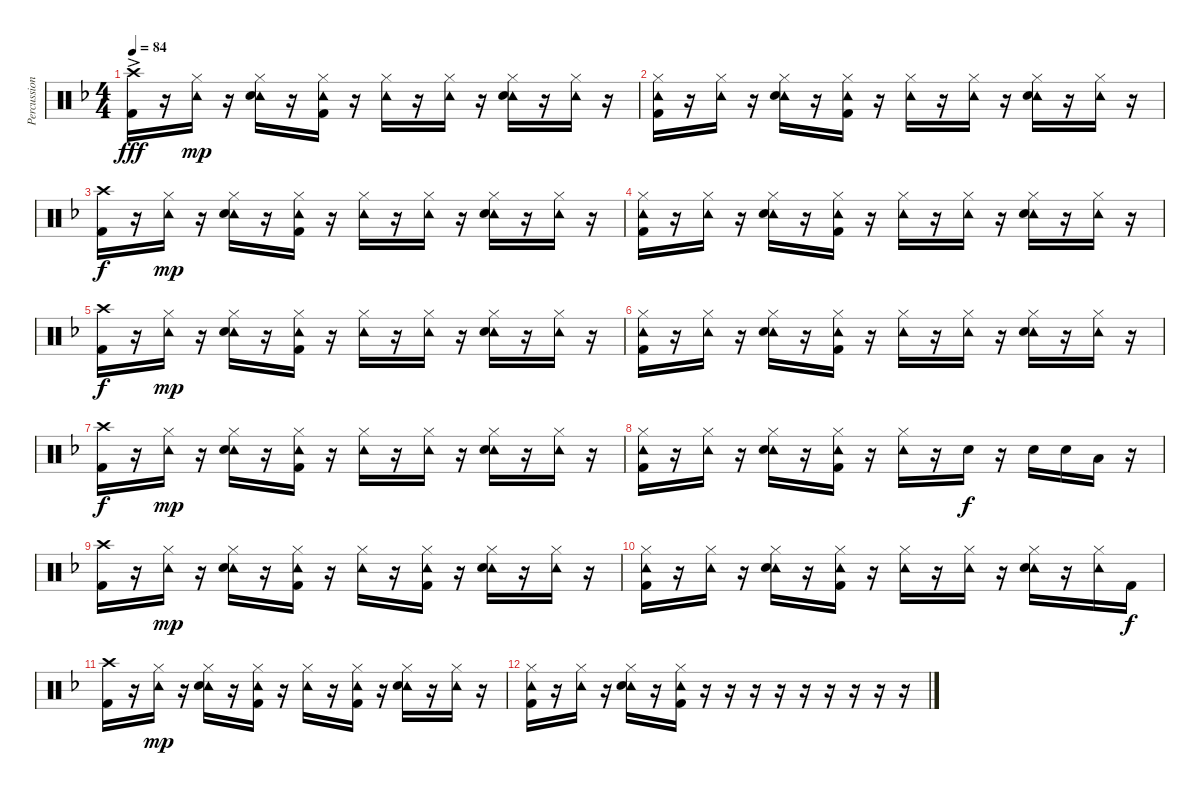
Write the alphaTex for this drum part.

\track ("Percussion" "Percussion") {instrument percussion}
\staff {score}
\articulation defaults
\ts (4 4)
\tempo 84
\clef neutral
\ks f
("Crash high (hit)"{ac} "Kick (hit) 2").16{dy fff} r.16 ("Hi-Hat (closed)" "Tambourine (hit)").16{dy mp} r.16 ("Hi-Hat (closed)" "Tambourine (hit)" "Snare (hit) 2").16 r.16 ("Hi-Hat (closed)" "Tambourine (hit)" "Kick (hit) 2").16 r.16 ("Hi-Hat (closed)" "Tambourine (hit)").16 r.16 ("Hi-Hat (closed)" "Tambourine (hit)").16 r.16 ("Hi-Hat (closed)" "Tambourine (hit)" "Snare (hit) 2").16 r.16 ("Hi-Hat (closed)" "Tambourine (hit)").16 r.16 |
("Hi-Hat (closed)" "Tambourine (hit)" "Kick (hit) 2").16 r.16 ("Hi-Hat (closed)" "Tambourine (hit)").16 r.16 ("Hi-Hat (closed)" "Tambourine (hit)" "Snare (hit) 2").16 r.16 ("Hi-Hat (closed)" "Tambourine (hit)" "Kick (hit) 2").16 r.16 ("Hi-Hat (closed)" "Tambourine (hit)").16 r.16 ("Hi-Hat (closed)" "Tambourine (hit)").16 r.16 ("Hi-Hat (closed)" "Tambourine (hit)" "Snare (hit) 2").16 r.16 ("Hi-Hat (closed)" "Tambourine (hit)").16 r.16 |
("Crash high (hit)" "Kick (hit) 2").16{dy f} r.16 ("Hi-Hat (closed)" "Tambourine (hit)").16{dy mp} r.16 ("Hi-Hat (closed)" "Tambourine (hit)" "Snare (hit) 2").16 r.16 ("Hi-Hat (closed)" "Tambourine (hit)" "Kick (hit) 2").16 r.16 ("Hi-Hat (closed)" "Tambourine (hit)").16 r.16 ("Hi-Hat (closed)" "Tambourine (hit)").16 r.16 ("Hi-Hat (closed)" "Tambourine (hit)" "Snare (hit) 2").16 r.16 ("Hi-Hat (closed)" "Tambourine (hit)").16 r.16 |
("Hi-Hat (closed)" "Tambourine (hit)" "Kick (hit) 2").16 r.16 ("Hi-Hat (closed)" "Tambourine (hit)").16 r.16 ("Hi-Hat (closed)" "Tambourine (hit)" "Snare (hit) 2").16 r.16 ("Hi-Hat (closed)" "Tambourine (hit)" "Kick (hit) 2").16 r.16 ("Hi-Hat (closed)" "Tambourine (hit)").16 r.16 ("Hi-Hat (closed)" "Tambourine (hit)").16 r.16 ("Hi-Hat (closed)" "Tambourine (hit)" "Snare (hit) 2").16 r.16 ("Hi-Hat (closed)" "Tambourine (hit)").16 r.16 |
("Crash high (hit)" "Kick (hit) 2").16{dy f} r.16 ("Hi-Hat (closed)" "Tambourine (hit)").16{dy mp} r.16 ("Hi-Hat (closed)" "Tambourine (hit)" "Snare (hit) 2").16 r.16 ("Hi-Hat (closed)" "Tambourine (hit)" "Kick (hit) 2").16 r.16 ("Hi-Hat (closed)" "Tambourine (hit)").16 r.16 ("Hi-Hat (closed)" "Tambourine (hit)").16 r.16 ("Hi-Hat (closed)" "Tambourine (hit)" "Snare (hit) 2").16 r.16 ("Hi-Hat (closed)" "Tambourine (hit)").16 r.16 |
("Hi-Hat (closed)" "Tambourine (hit)" "Kick (hit) 2").16 r.16 ("Hi-Hat (closed)" "Tambourine (hit)").16 r.16 ("Hi-Hat (closed)" "Tambourine (hit)" "Snare (hit) 2").16 r.16 ("Hi-Hat (closed)" "Tambourine (hit)" "Kick (hit) 2").16 r.16 ("Hi-Hat (closed)" "Tambourine (hit)").16 r.16 ("Hi-Hat (closed)" "Tambourine (hit)").16 r.16 ("Hi-Hat (closed)" "Tambourine (hit)" "Snare (hit) 2").16 r.16 ("Hi-Hat (closed)" "Tambourine (hit)").16 r.16 |
("Crash high (hit)" "Kick (hit) 2").16{dy f} r.16 ("Hi-Hat (closed)" "Tambourine (hit)").16{dy mp} r.16 ("Hi-Hat (closed)" "Tambourine (hit)" "Snare (hit) 2").16 r.16 ("Hi-Hat (closed)" "Tambourine (hit)" "Kick (hit) 2").16 r.16 ("Hi-Hat (closed)" "Tambourine (hit)").16 r.16 ("Hi-Hat (closed)" "Tambourine (hit)").16 r.16 ("Hi-Hat (closed)" "Tambourine (hit)" "Snare (hit) 2").16 r.16 ("Hi-Hat (closed)" "Tambourine (hit)").16 r.16 |
("Hi-Hat (closed)" "Tambourine (hit)" "Kick (hit) 2").16 r.16 ("Hi-Hat (closed)" "Tambourine (hit)").16 r.16 ("Hi-Hat (closed)" "Tambourine (hit)" "Snare (hit) 2").16 r.16 ("Hi-Hat (closed)" "Tambourine (hit)" "Kick (hit) 2").16 r.16 ("Hi-Hat (closed)" "Tambourine (hit)").16 r.16 "Snare (hit) 2".16{dy f} r.16 "Snare (hit) 2".16 "Snare (hit) 2".16 "Low Tom (hit)".16 r.16 |
("Crash high (hit)" "Kick (hit) 2").16 r.16 ("Hi-Hat (closed)" "Tambourine (hit)").16{dy mp} r.16 ("Hi-Hat (closed)" "Tambourine (hit)" "Snare (hit) 2").16 r.16 ("Hi-Hat (closed)" "Tambourine (hit)" "Kick (hit) 2").16 r.16 ("Hi-Hat (closed)" "Tambourine (hit)").16 r.16 ("Hi-Hat (closed)" "Tambourine (hit)" "Kick (hit) 2").16 r.16 ("Hi-Hat (closed)" "Tambourine (hit)" "Snare (hit) 2").16 r.16 ("Hi-Hat (closed)" "Tambourine (hit)").16 r.16 |
("Hi-Hat (closed)" "Tambourine (hit)" "Kick (hit) 2").16 r.16 ("Hi-Hat (closed)" "Tambourine (hit)").16 r.16 ("Hi-Hat (closed)" "Tambourine (hit)" "Snare (hit) 2").16 r.16 ("Hi-Hat (closed)" "Tambourine (hit)" "Kick (hit) 2").16 r.16 ("Hi-Hat (closed)" "Tambourine (hit)").16 r.16 ("Hi-Hat (closed)" "Tambourine (hit)").16 r.16 ("Hi-Hat (closed)" "Tambourine (hit)" "Snare (hit) 2").16 r.16 ("Hi-Hat (closed)" "Tambourine (hit)").16 "Kick (hit) 2".16{dy f} |
("Crash high (hit)" "Kick (hit) 2").16{volume 8} r.16 ("Hi-Hat (closed)" "Tambourine (hit)").16{dy mp} r.16 ("Hi-Hat (closed)" "Tambourine (hit)" "Snare (hit) 2").16 r.16 ("Hi-Hat (closed)" "Tambourine (hit)" "Kick (hit) 2").16 r.16 ("Hi-Hat (closed)" "Tambourine (hit)").16 r.16 ("Hi-Hat (closed)" "Tambourine (hit)" "Kick (hit) 2").16 r.16 ("Hi-Hat (closed)" "Tambourine (hit)" "Snare (hit) 2").16 r.16 ("Hi-Hat (closed)" "Tambourine (hit)").16 r.16 |
("Hi-Hat (closed)" "Tambourine (hit)" "Kick (hit) 2").16 r.16 ("Hi-Hat (closed)" "Tambourine (hit)").16 r.16 ("Hi-Hat (closed)" "Tambourine (hit)" "Snare (hit) 2").16 r.16 ("Hi-Hat (closed)" "Tambourine (hit)" "Kick (hit) 2").16 r.16 r.16 r.16 r.16 r.16 r.16 r.16 r.16 r.16
